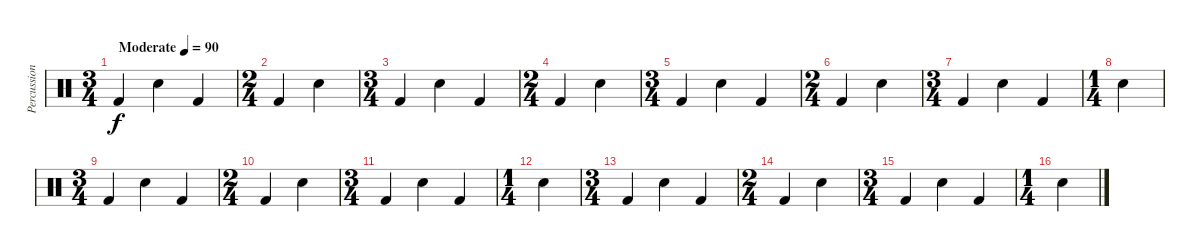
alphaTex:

\track ("Percussion" "Percussion") {instrument percussion}
\staff {score}
\articulation defaults
\ts (3 4)
\tempo (90 "Moderate")
\clef neutral
\ks c "Kick (hit) 2".4{dy f} "Snare (hit) 2".4 "Kick (hit) 2".4
|
\ts (2 4)
"Kick (hit) 2".4 "Snare (hit) 2".4 |
\ts (3 4)
"Kick (hit) 2".4 "Snare (hit) 2".4 "Kick (hit) 2".4 |
\ts (2 4)
"Kick (hit) 2".4 "Snare (hit) 2".4 |
\ts (3 4)
"Kick (hit) 2".4 "Snare (hit) 2".4 "Kick (hit) 2".4 |
\ts (2 4)
"Kick (hit) 2".4 "Snare (hit) 2".4 |
\ts (3 4)
"Kick (hit) 2".4 "Snare (hit) 2".4 "Kick (hit) 2".4 |
\ts (1 4)
"Snare (hit) 2".4 |
\ts (3 4)
"Kick (hit) 2".4 "Snare (hit) 2".4 "Kick (hit) 2".4 |
\ts (2 4)
"Kick (hit) 2".4 "Snare (hit) 2".4 |
\ts (3 4)
"Kick (hit) 2".4 "Snare (hit) 2".4 "Kick (hit) 2".4 |
\ts (1 4)
"Snare (hit) 2".4 |
\ts (3 4)
"Kick (hit) 2".4 "Snare (hit) 2".4 "Kick (hit) 2".4 |
\ts (2 4)
"Kick (hit) 2".4 "Snare (hit) 2".4 |
\ts (3 4)
"Kick (hit) 2".4 "Snare (hit) 2".4 "Kick (hit) 2".4 |
\ts (1 4)
"Snare (hit) 2".4
